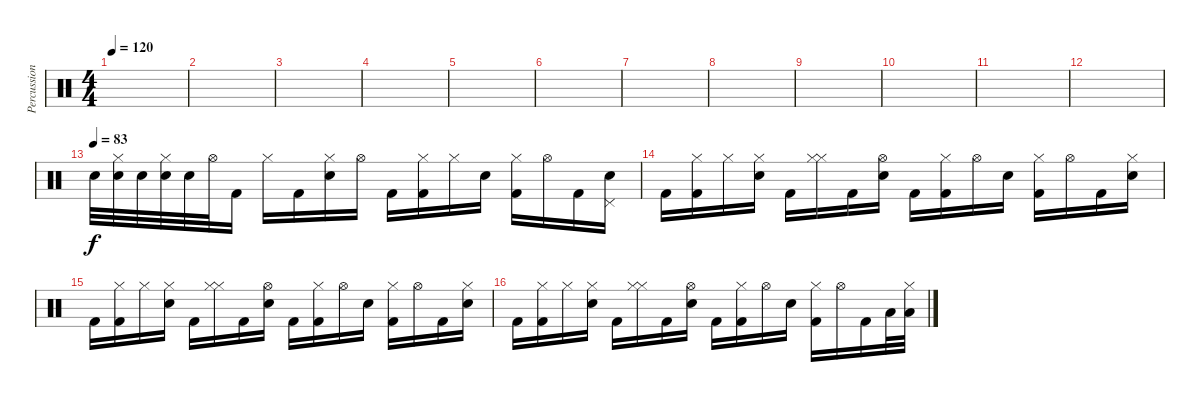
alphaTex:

\track ("Percussion" "Percussion") {instrument percussion}
\staff {score}
\articulation defaults
\ts (4 4)
\tempo 120
\clef neutral
\ks c
|
|
|
|
|
|
|
|
|
|
|
|
\tempo (83)
"Snare (hit) 2".32 ("Hi-Hat (closed)" "Snare (hit) 2").32 "Snare (hit) 2".32 ("Hi-Hat (closed)" "Snare (hit) 2").32 "Snare (hit) 2".32 "Hi-Hat (open)".32 "Kick (hit) 2".16 "Hi-Hat (closed)".16 "Kick (hit) 2".16 ("Hi-Hat (closed)" "Snare (hit) 2").16 "Hi-Hat (open)".16 "Kick (hit) 2".16 ("Hi-Hat (closed)" "Kick (hit) 2").16 "Hi-Hat (closed)".16 "Snare (hit) 2".16 ("Hi-Hat (closed)" "Kick (hit) 2").16 "Hi-Hat (open)".16 "Kick (hit) 2".16 ("Pedal Hi-Hat (hit)" "Snare (hit) 2").16 |
"Kick (hit) 2".16 ("Hi-Hat (closed)" "Kick (hit) 2").16 "Hi-Hat (closed)".16 ("Hi-Hat (closed)" "Snare (hit) 2").16 "Kick (hit) 2".16 ("Hi-Hat (closed)" "Hi-Hat (closed)").16 "Kick (hit) 2".16 ("Hi-Hat (open)" "Snare (hit) 2").16 "Kick (hit) 2".16 ("Hi-Hat (closed)" "Kick (hit) 2").16 "Hi-Hat (open)".16 "Snare (hit) 2".16 ("Hi-Hat (closed)" "Kick (hit) 2").16 "Hi-Hat (open)".16 "Kick (hit) 2".16 ("Hi-Hat (closed)" "Snare (hit) 2").16 |
"Kick (hit) 2".16 ("Hi-Hat (closed)" "Kick (hit) 2").16 "Hi-Hat (closed)".16 ("Hi-Hat (closed)" "Snare (hit) 2").16 "Kick (hit) 2".16 ("Hi-Hat (closed)" "Hi-Hat (closed)").16 "Kick (hit) 2".16 ("Hi-Hat (open)" "Snare (hit) 2").16 "Kick (hit) 2".16 ("Hi-Hat (closed)" "Kick (hit) 2").16 "Hi-Hat (open)".16 "Snare (hit) 2".16 ("Hi-Hat (closed)" "Kick (hit) 2").16 "Hi-Hat (open)".16 "Kick (hit) 2".16 ("Hi-Hat (closed)" "Snare (hit) 2").16 |
"Kick (hit) 2".16 ("Hi-Hat (closed)" "Kick (hit) 2").16 "Hi-Hat (closed)".16 ("Hi-Hat (closed)" "Snare (hit) 2").16 "Kick (hit) 2".16 ("Hi-Hat (closed)" "Hi-Hat (closed)").16 "Kick (hit) 2".16 ("Hi-Hat (open)" "Snare (hit) 2").16 "Kick (hit) 2".16 ("Hi-Hat (closed)" "Kick (hit) 2").16 "Hi-Hat (open)".16 "Snare (hit) 2".16 ("Hi-Hat (closed)" "Kick (hit) 2").16 "Hi-Hat (open)".16 "Kick (hit) 2".16 "Low Tom (hit)".32 ("Hi-Hat (closed)" "Low Tom (hit)").32
